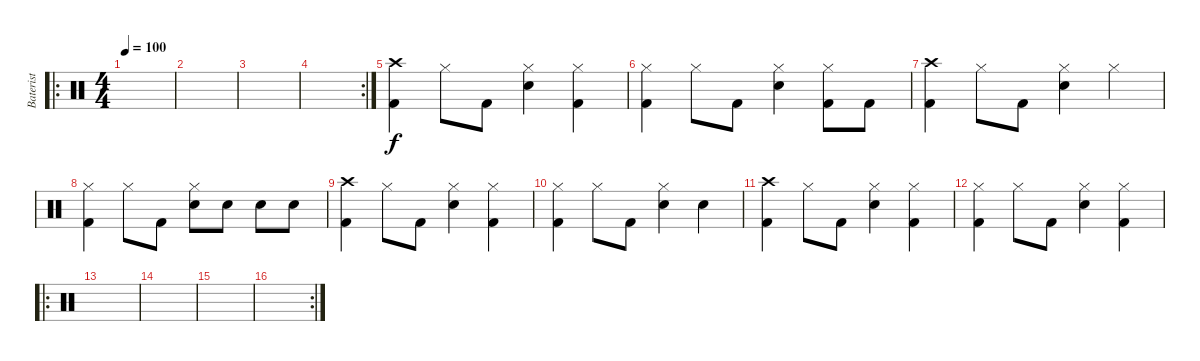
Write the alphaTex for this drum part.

\track ("Baterist" "Baterist") {instrument percussion}
\staff {score}
\articulation defaults
\ro
\ts (4 4)
\tempo 100
\clef neutral
\ks c
|
|
|
\rc 2
|
("Crash high (hit)" "Kick (hit) 2").4 "Hi-Hat (closed)".8 "Kick (hit) 2".8 ("Hi-Hat (closed)" "Electric Snare (hit)").4 ("Hi-Hat (closed)" "Kick (hit) 2").4 |
("Kick (hit) 2" "Hi-Hat (closed)").4 "Hi-Hat (closed)".8 "Kick (hit) 2".8 ("Hi-Hat (closed)" "Electric Snare (hit)").4 ("Hi-Hat (closed)" "Kick (hit) 2").8 "Kick (hit) 2".8 |
("Crash high (hit)" "Kick (hit) 2").4 "Hi-Hat (closed)".8 "Kick (hit) 2".8 ("Hi-Hat (closed)" "Electric Snare (hit)").4 "Hi-Hat (closed)".4 |
("Kick (hit) 2" "Hi-Hat (closed)").4 "Hi-Hat (closed)".8 "Kick (hit) 2".8 ("Hi-Hat (closed)" "Electric Snare (hit)").8 "Electric Snare (hit)".8 "Electric Snare (hit)".8 "Electric Snare (hit)".8 |
("Crash high (hit)" "Kick (hit) 2").4 "Hi-Hat (closed)".8 "Kick (hit) 2".8 ("Hi-Hat (closed)" "Electric Snare (hit)").4 ("Hi-Hat (closed)" "Kick (hit) 2").4 |
("Kick (hit) 2" "Hi-Hat (closed)").4 "Hi-Hat (closed)".8 "Kick (hit) 2".8 ("Hi-Hat (closed)" "Electric Snare (hit)").4 "Electric Snare (hit)".4 |
("Crash high (hit)" "Kick (hit) 2").4 "Hi-Hat (closed)".8 "Kick (hit) 2".8 ("Hi-Hat (closed)" "Electric Snare (hit)").4 ("Hi-Hat (closed)" "Kick (hit) 2").4 |
("Kick (hit) 2" "Hi-Hat (closed)").4 "Hi-Hat (closed)".8 "Kick (hit) 2".8 ("Hi-Hat (closed)" "Electric Snare (hit)").4 ("Hi-Hat (closed)" "Kick (hit) 2").4 |
\ro
|
|
|
\rc 2
